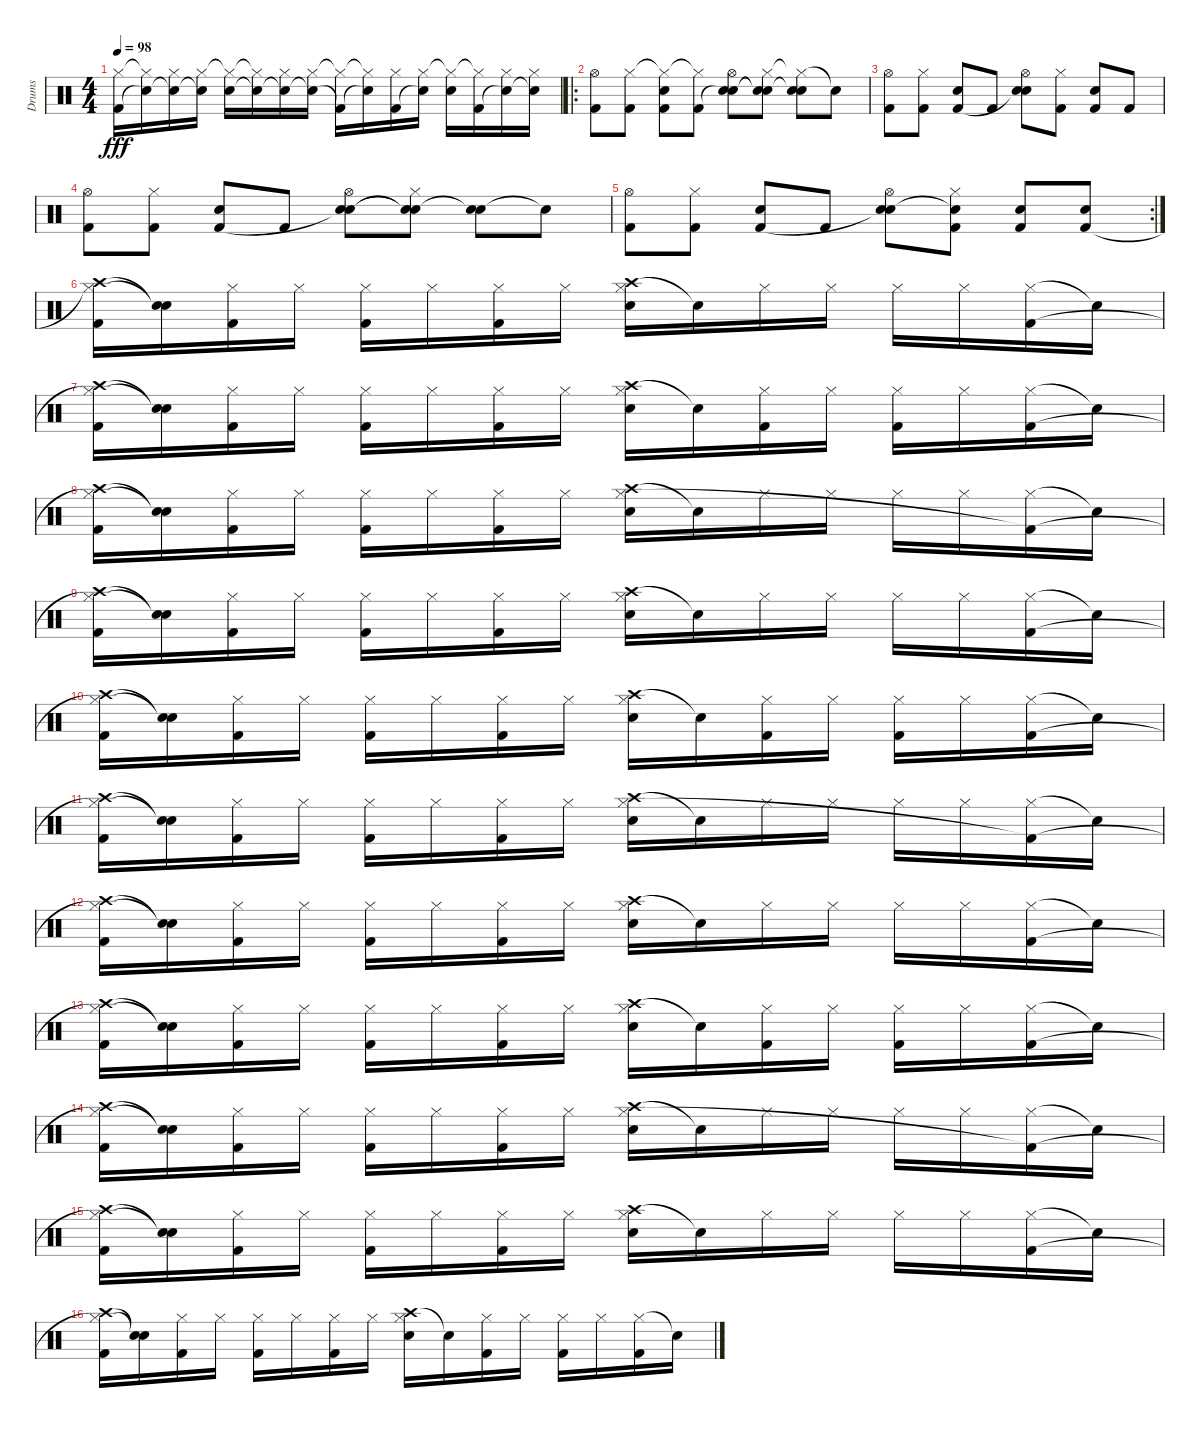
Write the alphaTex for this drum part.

\track ("Drums" "Drums") {instrument percussion}
\staff {score}
\articulation defaults
\ts (4 4)
\tempo 98
\clef neutral
\ks c
("Hi-Hat (closed)"{t} "Kick (hit) 2").16{dy fff} ("Hi-Hat (closed)"{t} "Snare (hit)"{t}).16 ("Hi-Hat (closed)" "Snare (hit)"{t}).16 ("Hi-Hat (closed)" "Snare (hit)"{t}).16 ("Hi-Hat (closed)"{t} "Electric Snare (hit)").16 ("Hi-Hat (closed)"{t} "Snare (hit)"{t}).16 ("Hi-Hat (closed)" "Snare (hit)"{t}).16 ("Hi-Hat (closed)" "Snare (hit)"{t}).16 ("Hi-Hat (closed)"{t} "Kick (hit) 2"{t}).16 ("Hi-Hat (closed)"{t} "Snare (hit)"{t}).16 ("Hi-Hat (closed)" "Kick (hit) 2").16 ("Hi-Hat (closed)" "Electric Snare (hit)"{t}).16 ("Hi-Hat (closed)"{t} "Electric Snare (hit)").16 ("Hi-Hat (closed)"{t} "Kick (hit) 2").16 ("Hi-Hat (closed)" "Electric Snare (hit)"{t}).16 ("Hi-Hat (closed)" "Snare (hit)"{t}).16 |
\ro
("Hi-Hat (open)" "Kick (hit) 2").8 ("Hi-Hat (closed)" "Kick (hit) 2").8 ("Hi-Hat (closed)"{t} "Hand Clap (hit)" "Kick (hit) 2").8 ("Hi-Hat (closed)"{t} "Kick (hit) 2").8 ("Hi-Hat (open)" "Hand Clap (hit)"{t} "Electric Snare (hit)").8 ("Hi-Hat (closed)" "Hand Clap (hit)"{t} "Electric Snare (hit)"{t}).8 ("Hi-Hat (closed)"{t} "Hand Clap (hit)" "Snare (hit)"{t}).8 "Snare (hit)"{t}.8 |
("Hi-Hat (open)" "Kick (hit) 2").8 ("Hi-Hat (closed)" "Kick (hit) 2").8 ("Hand Clap (hit)" "Kick (hit) 2").8 "Kick (hit) 2".8 ("Hi-Hat (open)" "Hand Clap (hit)"{t} "Electric Snare (hit)").8 ("Hi-Hat (closed)" "Kick (hit) 2").8 ("Hand Clap (hit)" "Kick (hit) 2").8 "Kick (hit) 2".8 |
("Hi-Hat (open)" "Kick (hit) 2").8 ("Hi-Hat (closed)" "Kick (hit) 2").8 ("Hand Clap (hit)" "Kick (hit) 2").8 "Kick (hit) 2".8 ("Hi-Hat (open)" "Hand Clap (hit)"{t} "Electric Snare (hit)").8 ("Hi-Hat (closed)" "Hand Clap (hit)"{t} "Electric Snare (hit)"{t}).8 ("Hand Clap (hit)" "Snare (hit)"{t}).8 "Snare (hit)"{t}.8 |
\rc 2
("Hi-Hat (open)" "Kick (hit) 2").8 ("Hi-Hat (closed)" "Kick (hit) 2").8 ("Hand Clap (hit)" "Kick (hit) 2").8 "Kick (hit) 2".8 ("Hi-Hat (open)" "Hand Clap (hit)"{t} "Electric Snare (hit)").8 ("Hi-Hat (closed)" "Hand Clap (hit)"{t} "Kick (hit) 2").8 ("Hand Clap (hit)" "Kick (hit) 2").8 ("Hand Clap (hit)" "Kick (hit) 2").8 |
("Crash high (hit)" "Hi-Hat (closed)"{t} "Kick (hit) 2").16 ("Snare (hit)"{t} "Snare (hit)"{t}).16 ("Hi-Hat (closed)" "Kick (hit) 2").16 "Hi-Hat (closed)".16 ("Hi-Hat (closed)" "Kick (hit) 2").16 "Hi-Hat (closed)".16 ("Hi-Hat (closed)" "Kick (hit) 2").16 "Hi-Hat (closed)".16 ("Crash high (hit)" "Hi-Hat (closed)" "Electric Snare (hit)").16 "Snare (hit)"{t}.16 "Hi-Hat (closed)".16 "Hi-Hat (closed)".16 "Hi-Hat (closed)".16 "Hi-Hat (closed)".16 ("Hi-Hat (closed)" "Kick (hit) 2").16 "Snare (hit)"{t}.16 |
("Crash high (hit)" "Hi-Hat (closed)"{t} "Kick (hit) 2").16 ("Snare (hit)"{t} "Snare (hit)"{t}).16 ("Hi-Hat (closed)" "Kick (hit) 2").16 "Hi-Hat (closed)".16 ("Hi-Hat (closed)" "Kick (hit) 2").16 "Hi-Hat (closed)".16 ("Hi-Hat (closed)" "Kick (hit) 2").16 "Hi-Hat (closed)".16 ("Crash high (hit)" "Hi-Hat (closed)" "Electric Snare (hit)").16 "Snare (hit)"{t}.16 ("Hi-Hat (closed)" "Kick (hit) 2").16 "Hi-Hat (closed)".16 ("Hi-Hat (closed)" "Kick (hit) 2").16 "Hi-Hat (closed)".16 ("Hi-Hat (closed)" "Kick (hit) 2").16 "Snare (hit)"{t}.16 |
("Crash high (hit)" "Hi-Hat (closed)"{t} "Kick (hit) 2").16 ("Snare (hit)"{t} "Snare (hit)"{t}).16 ("Hi-Hat (closed)" "Kick (hit) 2").16 "Hi-Hat (closed)".16 ("Hi-Hat (closed)" "Kick (hit) 2").16 "Hi-Hat (closed)".16 ("Hi-Hat (closed)" "Kick (hit) 2").16 "Hi-Hat (closed)".16 ("Crash high (hit)" "Hi-Hat (closed)" "Electric Snare (hit)").16 "Snare (hit)"{t}.16 "Hi-Hat (closed)".16 "Hi-Hat (closed)".16 "Hi-Hat (closed)".16 "Hi-Hat (closed)".16 ("Hi-Hat (closed)" "Kick (hit) 2"{t}).16 "Snare (hit)"{t}.16 |
("Crash high (hit)" "Hi-Hat (closed)"{t} "Kick (hit) 2").16 ("Snare (hit)"{t} "Snare (hit)"{t}).16 ("Hi-Hat (closed)" "Kick (hit) 2").16 "Hi-Hat (closed)".16 ("Hi-Hat (closed)" "Kick (hit) 2").16 "Hi-Hat (closed)".16 ("Hi-Hat (closed)" "Kick (hit) 2").16 "Hi-Hat (closed)".16 ("Crash high (hit)" "Hi-Hat (closed)" "Electric Snare (hit)").16 "Snare (hit)"{t}.16 "Hi-Hat (closed)".16 "Hi-Hat (closed)".16 "Hi-Hat (closed)".16 "Hi-Hat (closed)".16 ("Hi-Hat (closed)" "Kick (hit) 2").16 "Snare (hit)"{t}.16 |
("Crash high (hit)" "Hi-Hat (closed)"{t} "Kick (hit) 2").16 ("Snare (hit)"{t} "Snare (hit)"{t}).16 ("Hi-Hat (closed)" "Kick (hit) 2").16 "Hi-Hat (closed)".16 ("Hi-Hat (closed)" "Kick (hit) 2").16 "Hi-Hat (closed)".16 ("Hi-Hat (closed)" "Kick (hit) 2").16 "Hi-Hat (closed)".16 ("Crash high (hit)" "Hi-Hat (closed)" "Electric Snare (hit)").16 "Snare (hit)"{t}.16 ("Hi-Hat (closed)" "Kick (hit) 2").16 "Hi-Hat (closed)".16 ("Hi-Hat (closed)" "Kick (hit) 2").16 "Hi-Hat (closed)".16 ("Hi-Hat (closed)" "Kick (hit) 2").16 "Snare (hit)"{t}.16 |
("Crash high (hit)" "Hi-Hat (closed)"{t} "Kick (hit) 2").16 ("Snare (hit)"{t} "Snare (hit)"{t}).16 ("Hi-Hat (closed)" "Kick (hit) 2").16 "Hi-Hat (closed)".16 ("Hi-Hat (closed)" "Kick (hit) 2").16 "Hi-Hat (closed)".16 ("Hi-Hat (closed)" "Kick (hit) 2").16 "Hi-Hat (closed)".16 ("Crash high (hit)" "Hi-Hat (closed)" "Electric Snare (hit)").16 "Snare (hit)"{t}.16 "Hi-Hat (closed)".16 "Hi-Hat (closed)".16 "Hi-Hat (closed)".16 "Hi-Hat (closed)".16 ("Hi-Hat (closed)" "Kick (hit) 2"{t}).16 "Snare (hit)"{t}.16 |
("Crash high (hit)" "Hi-Hat (closed)"{t} "Kick (hit) 2").16 ("Snare (hit)"{t} "Snare (hit)"{t}).16 ("Hi-Hat (closed)" "Kick (hit) 2").16 "Hi-Hat (closed)".16 ("Hi-Hat (closed)" "Kick (hit) 2").16 "Hi-Hat (closed)".16 ("Hi-Hat (closed)" "Kick (hit) 2").16 "Hi-Hat (closed)".16 ("Crash high (hit)" "Hi-Hat (closed)" "Electric Snare (hit)").16 "Snare (hit)"{t}.16 "Hi-Hat (closed)".16 "Hi-Hat (closed)".16 "Hi-Hat (closed)".16 "Hi-Hat (closed)".16 ("Hi-Hat (closed)" "Kick (hit) 2").16 "Snare (hit)"{t}.16 |
("Crash high (hit)" "Hi-Hat (closed)"{t} "Kick (hit) 2").16 ("Snare (hit)"{t} "Snare (hit)"{t}).16 ("Hi-Hat (closed)" "Kick (hit) 2").16 "Hi-Hat (closed)".16 ("Hi-Hat (closed)" "Kick (hit) 2").16 "Hi-Hat (closed)".16 ("Hi-Hat (closed)" "Kick (hit) 2").16 "Hi-Hat (closed)".16 ("Crash high (hit)" "Hi-Hat (closed)" "Electric Snare (hit)").16 "Snare (hit)"{t}.16 ("Hi-Hat (closed)" "Kick (hit) 2").16 "Hi-Hat (closed)".16 ("Hi-Hat (closed)" "Kick (hit) 2").16 "Hi-Hat (closed)".16 ("Hi-Hat (closed)" "Kick (hit) 2").16 "Snare (hit)"{t}.16 |
("Crash high (hit)" "Hi-Hat (closed)"{t} "Kick (hit) 2").16 ("Snare (hit)"{t} "Snare (hit)"{t}).16 ("Hi-Hat (closed)" "Kick (hit) 2").16 "Hi-Hat (closed)".16 ("Hi-Hat (closed)" "Kick (hit) 2").16 "Hi-Hat (closed)".16 ("Hi-Hat (closed)" "Kick (hit) 2").16 "Hi-Hat (closed)".16 ("Crash high (hit)" "Hi-Hat (closed)" "Electric Snare (hit)").16 "Snare (hit)"{t}.16 "Hi-Hat (closed)".16 "Hi-Hat (closed)".16 "Hi-Hat (closed)".16 "Hi-Hat (closed)".16 ("Hi-Hat (closed)" "Kick (hit) 2"{t}).16 "Snare (hit)"{t}.16 |
("Crash high (hit)" "Hi-Hat (closed)"{t} "Kick (hit) 2").16 ("Snare (hit)"{t} "Snare (hit)"{t}).16 ("Hi-Hat (closed)" "Kick (hit) 2").16 "Hi-Hat (closed)".16 ("Hi-Hat (closed)" "Kick (hit) 2").16 "Hi-Hat (closed)".16 ("Hi-Hat (closed)" "Kick (hit) 2").16 "Hi-Hat (closed)".16 ("Crash high (hit)" "Hi-Hat (closed)" "Electric Snare (hit)").16 "Snare (hit)"{t}.16 "Hi-Hat (closed)".16 "Hi-Hat (closed)".16 "Hi-Hat (closed)".16 "Hi-Hat (closed)".16 ("Hi-Hat (closed)" "Kick (hit) 2").16 "Snare (hit)"{t}.16 |
("Crash high (hit)" "Hi-Hat (closed)"{t} "Kick (hit) 2").16 ("Snare (hit)"{t} "Snare (hit)"{t}).16 ("Hi-Hat (closed)" "Kick (hit) 2").16 "Hi-Hat (closed)".16 ("Hi-Hat (closed)" "Kick (hit) 2").16 "Hi-Hat (closed)".16 ("Hi-Hat (closed)" "Kick (hit) 2").16 "Hi-Hat (closed)".16 ("Crash high (hit)" "Hi-Hat (closed)" "Electric Snare (hit)").16 "Snare (hit)"{t}.16 ("Hi-Hat (closed)" "Kick (hit) 2").16 "Hi-Hat (closed)".16 ("Hi-Hat (closed)" "Kick (hit) 2").16 "Hi-Hat (closed)".16 ("Hi-Hat (closed)" "Kick (hit) 2").16 "Snare (hit)"{t}.16
